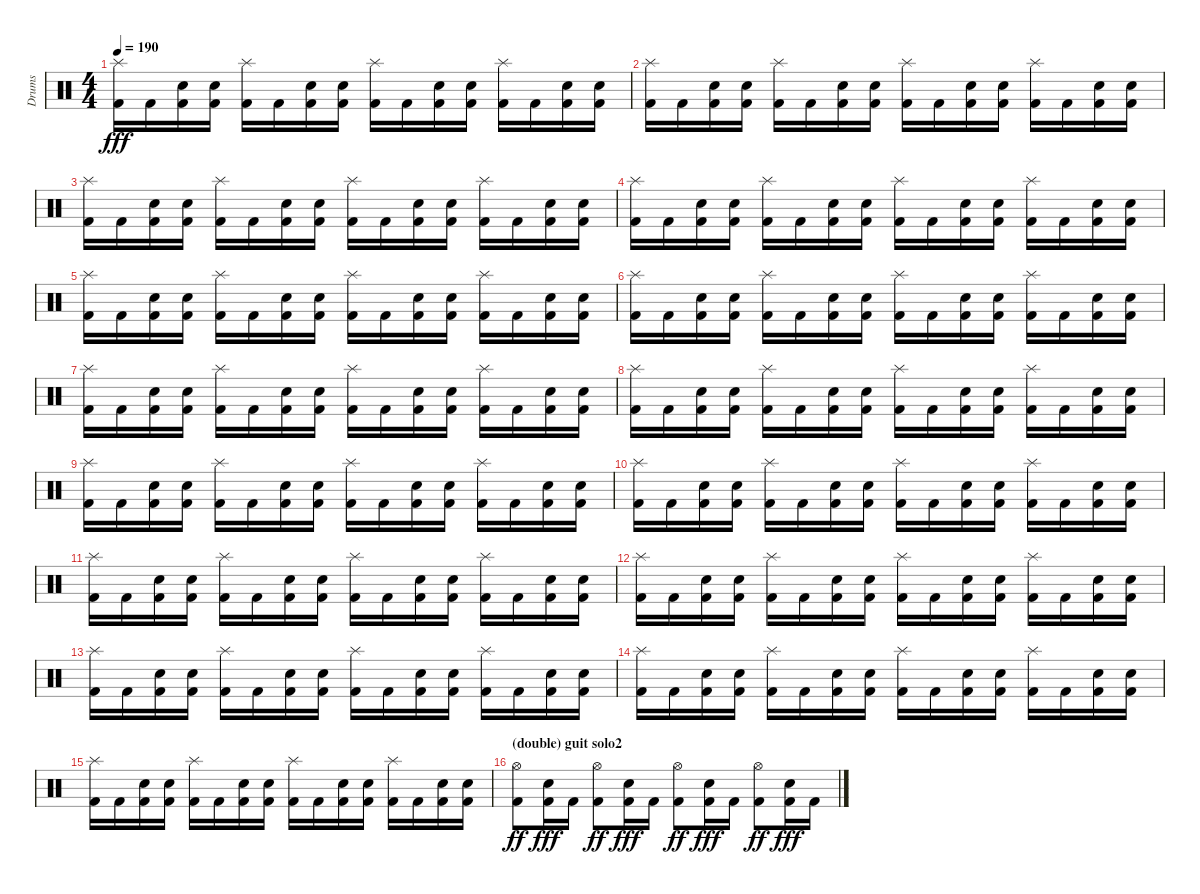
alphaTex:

\track ("Drums" "Drums") {instrument percussion}
\staff {score}
\articulation defaults
\ts (4 4)
\tempo 190
\clef neutral
\ks c
("Splash (hit)" "Kick (hit) 2").16{dy fff} "Kick (hit) 2".16 ("Electric Snare (hit)" "Kick (hit) 2").16 ("Electric Snare (hit)" "Kick (hit) 2").16 ("Splash (hit)" "Kick (hit) 2").16 "Kick (hit) 2".16 ("Electric Snare (hit)" "Kick (hit) 2").16 ("Electric Snare (hit)" "Kick (hit) 2").16 ("Splash (hit)" "Kick (hit) 2").16 "Kick (hit) 2".16 ("Electric Snare (hit)" "Kick (hit) 2").16 ("Electric Snare (hit)" "Kick (hit) 2").16 ("Splash (hit)" "Kick (hit) 2").16 "Kick (hit) 2".16 ("Electric Snare (hit)" "Kick (hit) 2").16 ("Electric Snare (hit)" "Kick (hit) 2").16 |
("Splash (hit)" "Kick (hit) 2").16 "Kick (hit) 2".16 ("Electric Snare (hit)" "Kick (hit) 2").16 ("Electric Snare (hit)" "Kick (hit) 2").16 ("Splash (hit)" "Kick (hit) 2").16 "Kick (hit) 2".16 ("Electric Snare (hit)" "Kick (hit) 2").16 ("Electric Snare (hit)" "Kick (hit) 2").16 ("Splash (hit)" "Kick (hit) 2").16 "Kick (hit) 2".16 ("Electric Snare (hit)" "Kick (hit) 2").16 ("Electric Snare (hit)" "Kick (hit) 2").16 ("Splash (hit)" "Kick (hit) 2").16 "Kick (hit) 2".16 ("Electric Snare (hit)" "Kick (hit) 2").16 ("Electric Snare (hit)" "Kick (hit) 2").16 |
("Splash (hit)" "Kick (hit) 2").16 "Kick (hit) 2".16 ("Electric Snare (hit)" "Kick (hit) 2").16 ("Electric Snare (hit)" "Kick (hit) 2").16 ("Splash (hit)" "Kick (hit) 2").16 "Kick (hit) 2".16 ("Electric Snare (hit)" "Kick (hit) 2").16 ("Electric Snare (hit)" "Kick (hit) 2").16 ("Splash (hit)" "Kick (hit) 2").16 "Kick (hit) 2".16 ("Electric Snare (hit)" "Kick (hit) 2").16 ("Electric Snare (hit)" "Kick (hit) 2").16 ("Splash (hit)" "Kick (hit) 2").16 "Kick (hit) 2".16 ("Electric Snare (hit)" "Kick (hit) 2").16 ("Electric Snare (hit)" "Kick (hit) 2").16 |
("Splash (hit)" "Kick (hit) 2").16 "Kick (hit) 2".16 ("Electric Snare (hit)" "Kick (hit) 2").16 ("Electric Snare (hit)" "Kick (hit) 2").16 ("Splash (hit)" "Kick (hit) 2").16 "Kick (hit) 2".16 ("Electric Snare (hit)" "Kick (hit) 2").16 ("Electric Snare (hit)" "Kick (hit) 2").16 ("Splash (hit)" "Kick (hit) 2").16 "Kick (hit) 2".16 ("Electric Snare (hit)" "Kick (hit) 2").16 ("Electric Snare (hit)" "Kick (hit) 2").16 ("Splash (hit)" "Kick (hit) 2").16 "Kick (hit) 2".16 ("Electric Snare (hit)" "Kick (hit) 2").16 ("Electric Snare (hit)" "Kick (hit) 2").16 |
("Splash (hit)" "Kick (hit) 2").16 "Kick (hit) 2".16 ("Electric Snare (hit)" "Kick (hit) 2").16 ("Electric Snare (hit)" "Kick (hit) 2").16 ("Splash (hit)" "Kick (hit) 2").16 "Kick (hit) 2".16 ("Electric Snare (hit)" "Kick (hit) 2").16 ("Electric Snare (hit)" "Kick (hit) 2").16 ("Splash (hit)" "Kick (hit) 2").16 "Kick (hit) 2".16 ("Electric Snare (hit)" "Kick (hit) 2").16 ("Electric Snare (hit)" "Kick (hit) 2").16 ("Splash (hit)" "Kick (hit) 2").16 "Kick (hit) 2".16 ("Electric Snare (hit)" "Kick (hit) 2").16 ("Electric Snare (hit)" "Kick (hit) 2").16 |
("Splash (hit)" "Kick (hit) 2").16 "Kick (hit) 2".16 ("Electric Snare (hit)" "Kick (hit) 2").16 ("Electric Snare (hit)" "Kick (hit) 2").16 ("Splash (hit)" "Kick (hit) 2").16 "Kick (hit) 2".16 ("Electric Snare (hit)" "Kick (hit) 2").16 ("Electric Snare (hit)" "Kick (hit) 2").16 ("Splash (hit)" "Kick (hit) 2").16 "Kick (hit) 2".16 ("Electric Snare (hit)" "Kick (hit) 2").16 ("Electric Snare (hit)" "Kick (hit) 2").16 ("Splash (hit)" "Kick (hit) 2").16 "Kick (hit) 2".16 ("Electric Snare (hit)" "Kick (hit) 2").16 ("Electric Snare (hit)" "Kick (hit) 2").16 |
("Splash (hit)" "Kick (hit) 2").16 "Kick (hit) 2".16 ("Electric Snare (hit)" "Kick (hit) 2").16 ("Electric Snare (hit)" "Kick (hit) 2").16 ("Splash (hit)" "Kick (hit) 2").16 "Kick (hit) 2".16 ("Electric Snare (hit)" "Kick (hit) 2").16 ("Electric Snare (hit)" "Kick (hit) 2").16 ("Splash (hit)" "Kick (hit) 2").16 "Kick (hit) 2".16 ("Electric Snare (hit)" "Kick (hit) 2").16 ("Electric Snare (hit)" "Kick (hit) 2").16 ("Splash (hit)" "Kick (hit) 2").16 "Kick (hit) 2".16 ("Electric Snare (hit)" "Kick (hit) 2").16 ("Electric Snare (hit)" "Kick (hit) 2").16 |
("Splash (hit)" "Kick (hit) 2").16 "Kick (hit) 2".16 ("Electric Snare (hit)" "Kick (hit) 2").16 ("Electric Snare (hit)" "Kick (hit) 2").16 ("Splash (hit)" "Kick (hit) 2").16 "Kick (hit) 2".16 ("Electric Snare (hit)" "Kick (hit) 2").16 ("Electric Snare (hit)" "Kick (hit) 2").16 ("Splash (hit)" "Kick (hit) 2").16 "Kick (hit) 2".16 ("Electric Snare (hit)" "Kick (hit) 2").16 ("Electric Snare (hit)" "Kick (hit) 2").16 ("Splash (hit)" "Kick (hit) 2").16 "Kick (hit) 2".16 ("Electric Snare (hit)" "Kick (hit) 2").16 ("Electric Snare (hit)" "Kick (hit) 2").16 |
("Splash (hit)" "Kick (hit) 2").16 "Kick (hit) 2".16 ("Electric Snare (hit)" "Kick (hit) 2").16 ("Electric Snare (hit)" "Kick (hit) 2").16 ("Splash (hit)" "Kick (hit) 2").16 "Kick (hit) 2".16 ("Electric Snare (hit)" "Kick (hit) 2").16 ("Electric Snare (hit)" "Kick (hit) 2").16 ("Splash (hit)" "Kick (hit) 2").16 "Kick (hit) 2".16 ("Electric Snare (hit)" "Kick (hit) 2").16 ("Electric Snare (hit)" "Kick (hit) 2").16 ("Splash (hit)" "Kick (hit) 2").16 "Kick (hit) 2".16 ("Electric Snare (hit)" "Kick (hit) 2").16 ("Electric Snare (hit)" "Kick (hit) 2").16 |
("Splash (hit)" "Kick (hit) 2").16 "Kick (hit) 2".16 ("Electric Snare (hit)" "Kick (hit) 2").16 ("Electric Snare (hit)" "Kick (hit) 2").16 ("Splash (hit)" "Kick (hit) 2").16 "Kick (hit) 2".16 ("Electric Snare (hit)" "Kick (hit) 2").16 ("Electric Snare (hit)" "Kick (hit) 2").16 ("Splash (hit)" "Kick (hit) 2").16 "Kick (hit) 2".16 ("Electric Snare (hit)" "Kick (hit) 2").16 ("Electric Snare (hit)" "Kick (hit) 2").16 ("Splash (hit)" "Kick (hit) 2").16 "Kick (hit) 2".16 ("Electric Snare (hit)" "Kick (hit) 2").16 ("Electric Snare (hit)" "Kick (hit) 2").16 |
("Splash (hit)" "Kick (hit) 2").16 "Kick (hit) 2".16 ("Electric Snare (hit)" "Kick (hit) 2").16 ("Electric Snare (hit)" "Kick (hit) 2").16 ("Splash (hit)" "Kick (hit) 2").16 "Kick (hit) 2".16 ("Electric Snare (hit)" "Kick (hit) 2").16 ("Electric Snare (hit)" "Kick (hit) 2").16 ("Splash (hit)" "Kick (hit) 2").16 "Kick (hit) 2".16 ("Electric Snare (hit)" "Kick (hit) 2").16 ("Electric Snare (hit)" "Kick (hit) 2").16 ("Splash (hit)" "Kick (hit) 2").16 "Kick (hit) 2".16 ("Electric Snare (hit)" "Kick (hit) 2").16 ("Electric Snare (hit)" "Kick (hit) 2").16 |
("Splash (hit)" "Kick (hit) 2").16 "Kick (hit) 2".16 ("Electric Snare (hit)" "Kick (hit) 2").16 ("Electric Snare (hit)" "Kick (hit) 2").16 ("Splash (hit)" "Kick (hit) 2").16 "Kick (hit) 2".16 ("Electric Snare (hit)" "Kick (hit) 2").16 ("Electric Snare (hit)" "Kick (hit) 2").16 ("Splash (hit)" "Kick (hit) 2").16 "Kick (hit) 2".16 ("Electric Snare (hit)" "Kick (hit) 2").16 ("Electric Snare (hit)" "Kick (hit) 2").16 ("Splash (hit)" "Kick (hit) 2").16 "Kick (hit) 2".16 ("Electric Snare (hit)" "Kick (hit) 2").16 ("Electric Snare (hit)" "Kick (hit) 2").16 |
("Splash (hit)" "Kick (hit) 2").16 "Kick (hit) 2".16 ("Electric Snare (hit)" "Kick (hit) 2").16 ("Electric Snare (hit)" "Kick (hit) 2").16 ("Splash (hit)" "Kick (hit) 2").16 "Kick (hit) 2".16 ("Electric Snare (hit)" "Kick (hit) 2").16 ("Electric Snare (hit)" "Kick (hit) 2").16 ("Splash (hit)" "Kick (hit) 2").16 "Kick (hit) 2".16 ("Electric Snare (hit)" "Kick (hit) 2").16 ("Electric Snare (hit)" "Kick (hit) 2").16 ("Splash (hit)" "Kick (hit) 2").16 "Kick (hit) 2".16 ("Electric Snare (hit)" "Kick (hit) 2").16 ("Electric Snare (hit)" "Kick (hit) 2").16 |
("Splash (hit)" "Kick (hit) 2").16 "Kick (hit) 2".16 ("Electric Snare (hit)" "Kick (hit) 2").16 ("Electric Snare (hit)" "Kick (hit) 2").16 ("Splash (hit)" "Kick (hit) 2").16 "Kick (hit) 2".16 ("Electric Snare (hit)" "Kick (hit) 2").16 ("Electric Snare (hit)" "Kick (hit) 2").16 ("Splash (hit)" "Kick (hit) 2").16 "Kick (hit) 2".16 ("Electric Snare (hit)" "Kick (hit) 2").16 ("Electric Snare (hit)" "Kick (hit) 2").16 ("Splash (hit)" "Kick (hit) 2").16 "Kick (hit) 2".16 ("Electric Snare (hit)" "Kick (hit) 2").16 ("Electric Snare (hit)" "Kick (hit) 2").16 |
("Splash (hit)" "Kick (hit) 2").16 "Kick (hit) 2".16 ("Electric Snare (hit)" "Kick (hit) 2").16 ("Electric Snare (hit)" "Kick (hit) 2").16 ("Splash (hit)" "Kick (hit) 2").16 "Kick (hit) 2".16 ("Electric Snare (hit)" "Kick (hit) 2").16 ("Electric Snare (hit)" "Kick (hit) 2").16 ("Splash (hit)" "Kick (hit) 2").16 "Kick (hit) 2".16 ("Electric Snare (hit)" "Kick (hit) 2").16 ("Electric Snare (hit)" "Kick (hit) 2").16 ("Splash (hit)" "Kick (hit) 2").16 "Kick (hit) 2".16 ("Electric Snare (hit)" "Kick (hit) 2").16 ("Electric Snare (hit)" "Kick (hit) 2").16 |
\section ("" "(double) guit solo2")
("Kick (hit) 2" "Hi-Hat (open)").8{dy ff} ("Kick (hit) 2" "Snare (hit) 2").16{dy fff} "Kick (hit) 2".16 ("Kick (hit) 2" "Hi-Hat (open)").8{dy ff} ("Kick (hit) 2" "Snare (hit) 2").16{dy fff} "Kick (hit) 2".16 ("Kick (hit) 2" "Hi-Hat (open)").8{dy ff} ("Kick (hit) 2" "Snare (hit) 2").16{dy fff} "Kick (hit) 2".16 ("Kick (hit) 2" "Hi-Hat (open)").8{dy ff} ("Kick (hit) 2" "Snare (hit) 2").16{dy fff} "Kick (hit) 2".16
